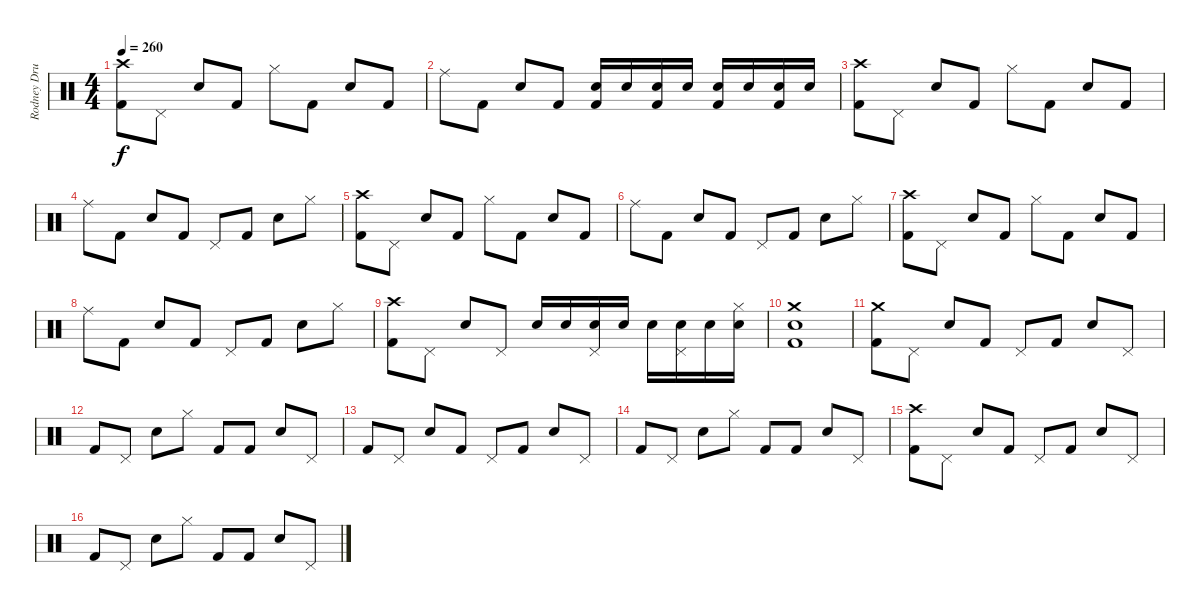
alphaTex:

\track ("Rodney Drums" "Rodney Dru") {instrument percussion}
\staff {score}
\articulation defaults
\ts (4 4)
\tempo 260
\clef neutral
\ks c
("Crash high (hit)" "Kick (hit) 2").8{dy f} "Pedal Hi-Hat (hit)".8 "Electric Snare (hit)".8 "Kick (hit) 2".8 "Hi-Hat (closed)".8 "Kick (hit) 2".8 "Electric Snare (hit)".8 "Kick (hit) 2".8 |
"Ride (middle)".8 "Kick (hit) 2".8 "Electric Snare (hit)".8 "Kick (hit) 2".8 ("Electric Snare (hit)" "Kick (hit) 2").16 "Electric Snare (hit)".16 ("Electric Snare (hit)" "Kick (hit) 2").16 "Electric Snare (hit)".16 ("Electric Snare (hit)" "Kick (hit) 2").16 "Electric Snare (hit)".16 ("Electric Snare (hit)" "Kick (hit) 2").16 "Electric Snare (hit)".16 |
("Crash high (hit)" "Kick (hit) 2").8 "Pedal Hi-Hat (hit)".8 "Electric Snare (hit)".8 "Kick (hit) 2".8 "Hi-Hat (closed)".8 "Kick (hit) 2".8 "Electric Snare (hit)".8 "Kick (hit) 2".8 |
"Ride (middle)".8 "Kick (hit) 2".8 "Electric Snare (hit)".8 "Kick (hit) 2".8 "Pedal Hi-Hat (hit)".8 "Kick (hit) 2".8 "Electric Snare (hit)".8 "Hi-Hat (closed)".8 |
("Crash high (hit)" "Kick (hit) 2").8 "Pedal Hi-Hat (hit)".8 "Electric Snare (hit)".8 "Kick (hit) 2".8 "Hi-Hat (closed)".8 "Kick (hit) 2".8 "Electric Snare (hit)".8 "Kick (hit) 2".8 |
"Ride (middle)".8 "Kick (hit) 2".8 "Electric Snare (hit)".8 "Kick (hit) 2".8 "Pedal Hi-Hat (hit)".8 "Kick (hit) 2".8 "Electric Snare (hit)".8 "Hi-Hat (closed)".8 |
("Crash high (hit)" "Kick (hit) 2").8 "Pedal Hi-Hat (hit)".8 "Electric Snare (hit)".8 "Kick (hit) 2".8 "Hi-Hat (closed)".8 "Kick (hit) 2".8 "Electric Snare (hit)".8 "Kick (hit) 2".8 |
"Ride (middle)".8 "Kick (hit) 2".8 "Electric Snare (hit)".8 "Kick (hit) 2".8 "Pedal Hi-Hat (hit)".8 "Kick (hit) 2".8 "Electric Snare (hit)".8 "Hi-Hat (closed)".8 |
("Crash high (hit)" "Kick (hit) 2").8 "Pedal Hi-Hat (hit)".8 "Electric Snare (hit)".8 "Pedal Hi-Hat (hit)".8 "Electric Snare (hit)".16 "Electric Snare (hit)".16 ("Pedal Hi-Hat (hit)" "Electric Snare (hit)").16 "Electric Snare (hit)".16 "Electric Snare (hit)".16 ("Pedal Hi-Hat (hit)" "Electric Snare (hit)").16 "Electric Snare (hit)".16 ("Hi-Hat (closed)" "Electric Snare (hit)").16 |
("Crash medium (hit)" "Electric Snare (hit)" "Kick (hit) 2").1 |
("Crash medium (hit)" "Kick (hit) 2").8 "Pedal Hi-Hat (hit)".8 "Electric Snare (hit)".8 "Kick (hit) 2".8 "Pedal Hi-Hat (hit)".8 "Kick (hit) 2".8 "Electric Snare (hit)".8 "Pedal Hi-Hat (hit)".8 |
"Kick (hit) 2".8 "Pedal Hi-Hat (hit)".8 "Electric Snare (hit)".8 "Hi-Hat (closed)".8 "Kick (hit) 2".8 "Kick (hit) 2".8 "Electric Snare (hit)".8 "Pedal Hi-Hat (hit)".8 |
"Kick (hit) 2".8 "Pedal Hi-Hat (hit)".8 "Electric Snare (hit)".8 "Kick (hit) 2".8 "Pedal Hi-Hat (hit)".8 "Kick (hit) 2".8 "Electric Snare (hit)".8 "Pedal Hi-Hat (hit)".8 |
"Kick (hit) 2".8 "Pedal Hi-Hat (hit)".8 "Electric Snare (hit)".8 "Hi-Hat (closed)".8 "Kick (hit) 2".8 "Kick (hit) 2".8 "Electric Snare (hit)".8 "Pedal Hi-Hat (hit)".8 |
("Crash high (hit)" "Kick (hit) 2").8 "Pedal Hi-Hat (hit)".8 "Electric Snare (hit)".8 "Kick (hit) 2".8 "Pedal Hi-Hat (hit)".8 "Kick (hit) 2".8 "Electric Snare (hit)".8 "Pedal Hi-Hat (hit)".8 |
"Kick (hit) 2".8 "Pedal Hi-Hat (hit)".8 "Electric Snare (hit)".8 "Hi-Hat (closed)".8 "Kick (hit) 2".8 "Kick (hit) 2".8 "Electric Snare (hit)".8 "Pedal Hi-Hat (hit)".8
